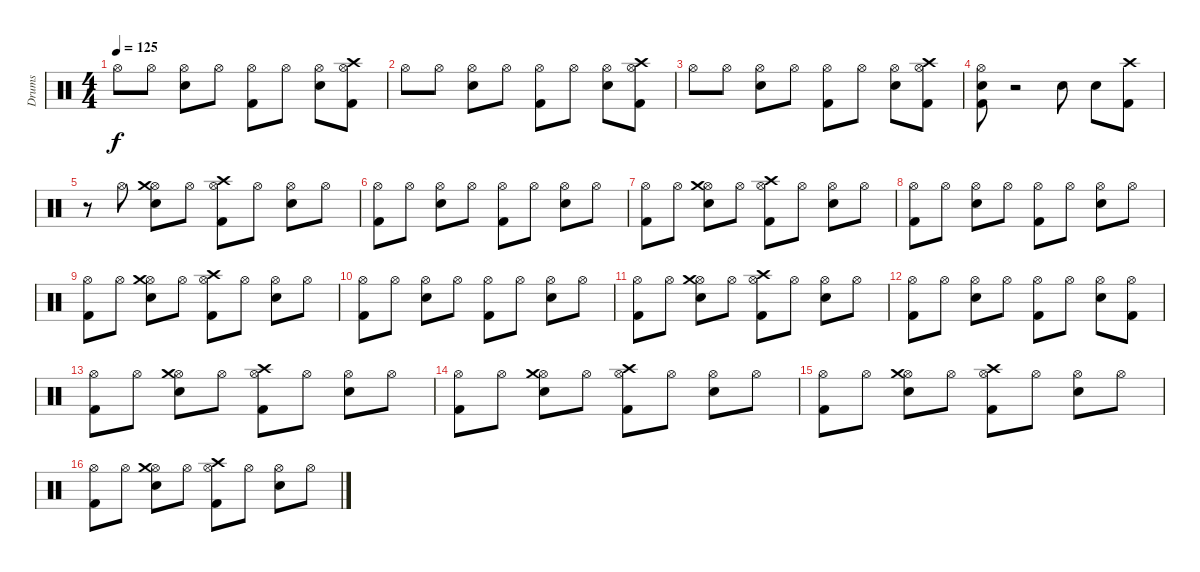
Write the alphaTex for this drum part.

\track ("Drums" "Drums") {instrument percussion}
\staff {score}
\articulation defaults
\ts (4 4)
\tempo 125
\clef neutral
\ks c "Hi-Hat (open)".8{dy f} "Hi-Hat (open)".8
("Electric Snare (hit)" "Hi-Hat (open)").8 "Hi-Hat (open)".8 ("Kick (hit) 2" "Hi-Hat (open)").8 "Hi-Hat (open)".8 ("Electric Snare (hit)" "Hi-Hat (open)").8 ("Kick (hit) 2" "Hi-Hat (open)" "Crash high (hit)").8 |
"Hi-Hat (open)".8 "Hi-Hat (open)".8 ("Electric Snare (hit)" "Hi-Hat (open)").8 "Hi-Hat (open)".8 ("Kick (hit) 2" "Hi-Hat (open)").8 "Hi-Hat (open)".8 ("Electric Snare (hit)" "Hi-Hat (open)").8 ("Kick (hit) 2" "Hi-Hat (open)" "Crash high (hit)").8 |
"Hi-Hat (open)".8 "Hi-Hat (open)".8 ("Electric Snare (hit)" "Hi-Hat (open)").8 "Hi-Hat (open)".8 ("Kick (hit) 2" "Hi-Hat (open)").8 "Hi-Hat (open)".8 ("Electric Snare (hit)" "Hi-Hat (open)").8 ("Kick (hit) 2" "Hi-Hat (open)" "Crash high (hit)").8 |
("Kick (hit) 2" "Electric Snare (hit)" "Hi-Hat (open)").8 r.2 "Electric Snare (hit)".8 "Electric Snare (hit)".8 ("Kick (hit) 2" "Crash high (hit)").8 |
r.8 "Hi-Hat (open)".8 ("Electric Snare (hit)" "Hi-Hat (open)" "Crash medium (hit)").8 "Hi-Hat (open)".8 ("Kick (hit) 2" "Hi-Hat (open)" "Crash high (hit)").8 "Hi-Hat (open)".8 ("Electric Snare (hit)" "Hi-Hat (open)").8 "Hi-Hat (open)".8 |
("Kick (hit) 2" "Hi-Hat (open)").8 "Hi-Hat (open)".8 ("Electric Snare (hit)" "Hi-Hat (open)").8 "Hi-Hat (open)".8 ("Kick (hit) 2" "Hi-Hat (open)").8 "Hi-Hat (open)".8 ("Electric Snare (hit)" "Hi-Hat (open)").8 "Hi-Hat (open)".8 |
("Kick (hit) 2" "Hi-Hat (open)").8 "Hi-Hat (open)".8 ("Electric Snare (hit)" "Hi-Hat (open)" "Crash medium (hit)").8 "Hi-Hat (open)".8 ("Kick (hit) 2" "Hi-Hat (open)" "Crash high (hit)").8 "Hi-Hat (open)".8 ("Electric Snare (hit)" "Hi-Hat (open)").8 "Hi-Hat (open)".8 |
("Kick (hit) 2" "Hi-Hat (open)").8 "Hi-Hat (open)".8 ("Electric Snare (hit)" "Hi-Hat (open)").8 "Hi-Hat (open)".8 ("Kick (hit) 2" "Hi-Hat (open)").8 "Hi-Hat (open)".8 ("Electric Snare (hit)" "Hi-Hat (open)").8 "Hi-Hat (open)".8 |
("Kick (hit) 2" "Hi-Hat (open)").8 "Hi-Hat (open)".8 ("Electric Snare (hit)" "Hi-Hat (open)" "Crash medium (hit)").8 "Hi-Hat (open)".8 ("Kick (hit) 2" "Hi-Hat (open)" "Crash high (hit)").8 "Hi-Hat (open)".8 ("Electric Snare (hit)" "Hi-Hat (open)").8 "Hi-Hat (open)".8 |
("Kick (hit) 2" "Hi-Hat (open)").8 "Hi-Hat (open)".8 ("Electric Snare (hit)" "Hi-Hat (open)").8 "Hi-Hat (open)".8 ("Kick (hit) 2" "Hi-Hat (open)").8 "Hi-Hat (open)".8 ("Electric Snare (hit)" "Hi-Hat (open)").8 "Hi-Hat (open)".8 |
("Kick (hit) 2" "Hi-Hat (open)").8 "Hi-Hat (open)".8 ("Electric Snare (hit)" "Hi-Hat (open)" "Crash medium (hit)").8 "Hi-Hat (open)".8 ("Kick (hit) 2" "Hi-Hat (open)" "Crash high (hit)").8 "Hi-Hat (open)".8 ("Electric Snare (hit)" "Hi-Hat (open)").8 "Hi-Hat (open)".8 |
("Kick (hit) 2" "Hi-Hat (open)").8 "Hi-Hat (open)".8 ("Electric Snare (hit)" "Hi-Hat (open)").8 "Hi-Hat (open)".8 ("Kick (hit) 2" "Hi-Hat (open)").8 "Hi-Hat (open)".8 ("Electric Snare (hit)" "Hi-Hat (open)").8 ("Kick (hit) 2" "Hi-Hat (open)").8 |
("Kick (hit) 2" "Hi-Hat (open)").8 "Hi-Hat (open)".8 ("Electric Snare (hit)" "Hi-Hat (open)" "Crash medium (hit)").8 "Hi-Hat (open)".8 ("Kick (hit) 2" "Hi-Hat (open)" "Crash high (hit)").8 "Hi-Hat (open)".8 ("Electric Snare (hit)" "Hi-Hat (open)").8 "Hi-Hat (open)".8 |
("Kick (hit) 2" "Hi-Hat (open)").8 "Hi-Hat (open)".8 ("Electric Snare (hit)" "Hi-Hat (open)" "Crash medium (hit)").8 "Hi-Hat (open)".8 ("Kick (hit) 2" "Hi-Hat (open)" "Crash high (hit)").8 "Hi-Hat (open)".8 ("Electric Snare (hit)" "Hi-Hat (open)").8 "Hi-Hat (open)".8 |
("Kick (hit) 2" "Hi-Hat (open)").8 "Hi-Hat (open)".8 ("Electric Snare (hit)" "Hi-Hat (open)" "Crash medium (hit)").8 "Hi-Hat (open)".8 ("Kick (hit) 2" "Hi-Hat (open)" "Crash high (hit)").8 "Hi-Hat (open)".8 ("Electric Snare (hit)" "Hi-Hat (open)").8 "Hi-Hat (open)".8 |
("Kick (hit) 2" "Hi-Hat (open)").8 "Hi-Hat (open)".8 ("Electric Snare (hit)" "Hi-Hat (open)" "Crash medium (hit)").8 "Hi-Hat (open)".8 ("Kick (hit) 2" "Hi-Hat (open)" "Crash high (hit)").8 "Hi-Hat (open)".8 ("Electric Snare (hit)" "Hi-Hat (open)").8 "Hi-Hat (open)".8
